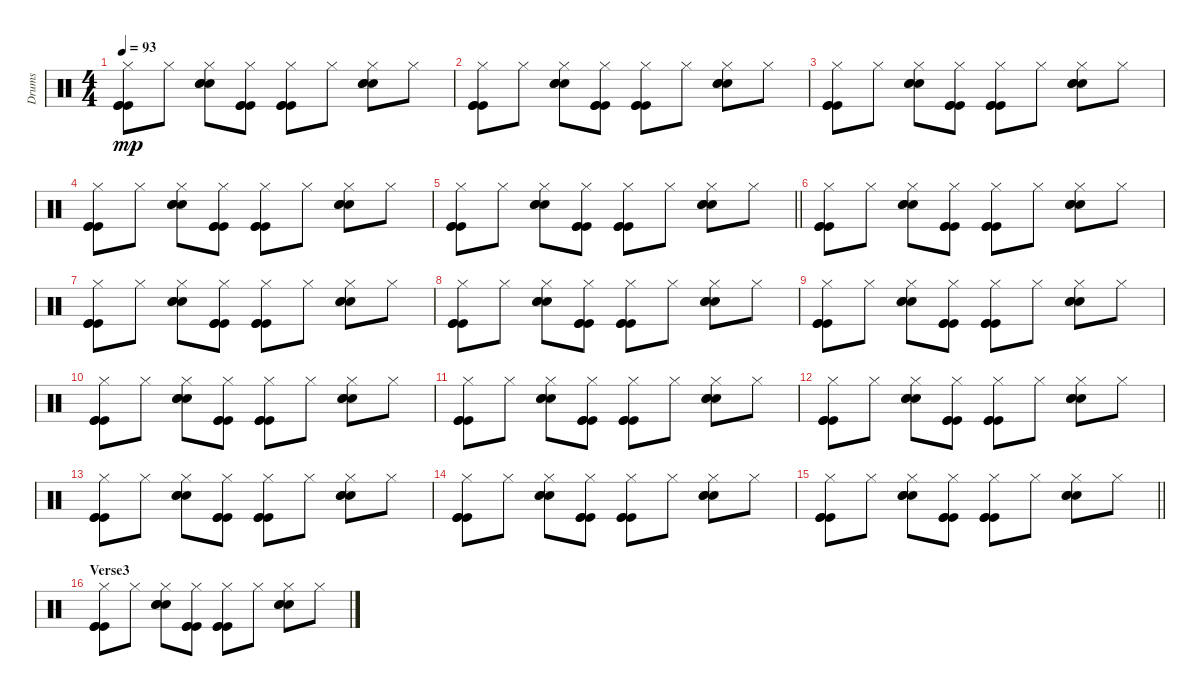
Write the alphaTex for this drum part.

\track ("Drums" "Drums") {instrument percussion}
\staff {score}
\articulation defaults
\ts (4 4)
\tempo 93
\clef neutral
\ks c
("Kick (hit)" "Kick (hit)" "Kick (hit)" "Hi-Hat (closed)").8{dy mp} "Hi-Hat (closed)".8 ("Snare (hit) 2" "Snare (hit) 2" "Snare (hit) 2" "Hi-Hat (closed)").8 ("Kick (hit)" "Kick (hit)" "Kick (hit)" "Hi-Hat (closed)").8 ("Kick (hit)" "Kick (hit)" "Kick (hit)" "Hi-Hat (closed)").8 "Hi-Hat (closed)".8 ("Snare (hit) 2" "Snare (hit) 2" "Snare (hit) 2" "Hi-Hat (closed)").8 "Hi-Hat (closed)".8 |
("Kick (hit)" "Kick (hit)" "Kick (hit)" "Hi-Hat (closed)").8 "Hi-Hat (closed)".8 ("Snare (hit) 2" "Snare (hit) 2" "Snare (hit) 2" "Hi-Hat (closed)").8 ("Kick (hit)" "Kick (hit)" "Kick (hit)" "Hi-Hat (closed)").8 ("Kick (hit)" "Kick (hit)" "Kick (hit)" "Hi-Hat (closed)").8 "Hi-Hat (closed)".8 ("Snare (hit) 2" "Snare (hit) 2" "Snare (hit) 2" "Hi-Hat (closed)").8 "Hi-Hat (closed)".8 |
("Kick (hit)" "Kick (hit)" "Kick (hit)" "Hi-Hat (closed)").8 "Hi-Hat (closed)".8 ("Snare (hit) 2" "Snare (hit) 2" "Snare (hit) 2" "Hi-Hat (closed)").8 ("Kick (hit)" "Kick (hit)" "Kick (hit)" "Hi-Hat (closed)").8 ("Kick (hit)" "Kick (hit)" "Kick (hit)" "Hi-Hat (closed)").8 "Hi-Hat (closed)".8 ("Snare (hit) 2" "Snare (hit) 2" "Snare (hit) 2" "Hi-Hat (closed)").8 "Hi-Hat (closed)".8 |
("Kick (hit)" "Kick (hit)" "Kick (hit)" "Hi-Hat (closed)").8 "Hi-Hat (closed)".8 ("Snare (hit) 2" "Snare (hit) 2" "Snare (hit) 2" "Hi-Hat (closed)").8 ("Kick (hit)" "Kick (hit)" "Kick (hit)" "Hi-Hat (closed)").8 ("Kick (hit)" "Kick (hit)" "Kick (hit)" "Hi-Hat (closed)").8 "Hi-Hat (closed)".8 ("Snare (hit) 2" "Snare (hit) 2" "Snare (hit) 2" "Hi-Hat (closed)").8 "Hi-Hat (closed)".8 |
\barLineRight lightlight
("Kick (hit)" "Kick (hit)" "Kick (hit)" "Hi-Hat (closed)").8 "Hi-Hat (closed)".8 ("Snare (hit) 2" "Snare (hit) 2" "Snare (hit) 2" "Hi-Hat (closed)").8 ("Kick (hit)" "Kick (hit)" "Kick (hit)" "Hi-Hat (closed)").8 ("Kick (hit)" "Kick (hit)" "Kick (hit)" "Hi-Hat (closed)").8 "Hi-Hat (closed)".8 ("Snare (hit) 2" "Snare (hit) 2" "Snare (hit) 2" "Hi-Hat (closed)").8 "Hi-Hat (closed)".8 |
("Kick (hit)" "Kick (hit)" "Kick (hit)" "Hi-Hat (closed)").8 "Hi-Hat (closed)".8 ("Snare (hit) 2" "Snare (hit) 2" "Snare (hit) 2" "Hi-Hat (closed)").8 ("Kick (hit)" "Kick (hit)" "Kick (hit)" "Hi-Hat (closed)").8 ("Kick (hit)" "Kick (hit)" "Kick (hit)" "Hi-Hat (closed)").8 "Hi-Hat (closed)".8 ("Snare (hit) 2" "Snare (hit) 2" "Snare (hit) 2" "Hi-Hat (closed)").8 "Hi-Hat (closed)".8 |
("Kick (hit)" "Kick (hit)" "Kick (hit)" "Hi-Hat (closed)").8 "Hi-Hat (closed)".8 ("Snare (hit) 2" "Snare (hit) 2" "Snare (hit) 2" "Hi-Hat (closed)").8 ("Kick (hit)" "Kick (hit)" "Kick (hit)" "Hi-Hat (closed)").8 ("Kick (hit)" "Kick (hit)" "Kick (hit)" "Hi-Hat (closed)").8 "Hi-Hat (closed)".8 ("Snare (hit) 2" "Snare (hit) 2" "Snare (hit) 2" "Hi-Hat (closed)").8 "Hi-Hat (closed)".8 |
("Kick (hit)" "Kick (hit)" "Kick (hit)" "Hi-Hat (closed)").8 "Hi-Hat (closed)".8 ("Snare (hit) 2" "Snare (hit) 2" "Snare (hit) 2" "Hi-Hat (closed)").8 ("Kick (hit)" "Kick (hit)" "Kick (hit)" "Hi-Hat (closed)").8 ("Kick (hit)" "Kick (hit)" "Kick (hit)" "Hi-Hat (closed)").8 "Hi-Hat (closed)".8 ("Snare (hit) 2" "Snare (hit) 2" "Snare (hit) 2" "Hi-Hat (closed)").8 "Hi-Hat (closed)".8 |
("Kick (hit)" "Kick (hit)" "Kick (hit)" "Hi-Hat (closed)").8 "Hi-Hat (closed)".8 ("Snare (hit) 2" "Snare (hit) 2" "Snare (hit) 2" "Hi-Hat (closed)").8 ("Kick (hit)" "Kick (hit)" "Kick (hit)" "Hi-Hat (closed)").8 ("Kick (hit)" "Kick (hit)" "Kick (hit)" "Hi-Hat (closed)").8 "Hi-Hat (closed)".8 ("Snare (hit) 2" "Snare (hit) 2" "Snare (hit) 2" "Hi-Hat (closed)").8 "Hi-Hat (closed)".8 |
("Kick (hit)" "Kick (hit)" "Kick (hit)" "Hi-Hat (closed)").8 "Hi-Hat (closed)".8 ("Snare (hit) 2" "Snare (hit) 2" "Snare (hit) 2" "Hi-Hat (closed)").8 ("Kick (hit)" "Kick (hit)" "Kick (hit)" "Hi-Hat (closed)").8 ("Kick (hit)" "Kick (hit)" "Kick (hit)" "Hi-Hat (closed)").8 "Hi-Hat (closed)".8 ("Snare (hit) 2" "Snare (hit) 2" "Snare (hit) 2" "Hi-Hat (closed)").8 "Hi-Hat (closed)".8 |
("Kick (hit)" "Kick (hit)" "Kick (hit)" "Hi-Hat (closed)").8 "Hi-Hat (closed)".8 ("Snare (hit) 2" "Snare (hit) 2" "Snare (hit) 2" "Hi-Hat (closed)").8 ("Kick (hit)" "Kick (hit)" "Kick (hit)" "Hi-Hat (closed)").8 ("Kick (hit)" "Kick (hit)" "Kick (hit)" "Hi-Hat (closed)").8 "Hi-Hat (closed)".8 ("Snare (hit) 2" "Snare (hit) 2" "Snare (hit) 2" "Hi-Hat (closed)").8 "Hi-Hat (closed)".8 |
("Kick (hit)" "Kick (hit)" "Kick (hit)" "Hi-Hat (closed)").8 "Hi-Hat (closed)".8 ("Snare (hit) 2" "Snare (hit) 2" "Snare (hit) 2" "Hi-Hat (closed)").8 ("Kick (hit)" "Kick (hit)" "Kick (hit)" "Hi-Hat (closed)").8 ("Kick (hit)" "Kick (hit)" "Kick (hit)" "Hi-Hat (closed)").8 "Hi-Hat (closed)".8 ("Snare (hit) 2" "Snare (hit) 2" "Snare (hit) 2" "Hi-Hat (closed)").8 "Hi-Hat (closed)".8 |
("Kick (hit)" "Kick (hit)" "Kick (hit)" "Hi-Hat (closed)").8{volume 4} "Hi-Hat (closed)".8 ("Snare (hit) 2" "Snare (hit) 2" "Snare (hit) 2" "Hi-Hat (closed)").8 ("Kick (hit)" "Kick (hit)" "Kick (hit)" "Hi-Hat (closed)").8 ("Kick (hit)" "Kick (hit)" "Kick (hit)" "Hi-Hat (closed)").8 "Hi-Hat (closed)".8 ("Snare (hit) 2" "Snare (hit) 2" "Snare (hit) 2" "Hi-Hat (closed)").8 "Hi-Hat (closed)".8 |
("Kick (hit)" "Kick (hit)" "Kick (hit)" "Hi-Hat (closed)").8 "Hi-Hat (closed)".8 ("Snare (hit) 2" "Snare (hit) 2" "Snare (hit) 2" "Hi-Hat (closed)").8 ("Kick (hit)" "Kick (hit)" "Kick (hit)" "Hi-Hat (closed)").8 ("Kick (hit)" "Kick (hit)" "Kick (hit)" "Hi-Hat (closed)").8 "Hi-Hat (closed)".8 ("Snare (hit) 2" "Snare (hit) 2" "Snare (hit) 2" "Hi-Hat (closed)").8 "Hi-Hat (closed)".8 |
\barLineRight lightlight
("Kick (hit)" "Kick (hit)" "Kick (hit)" "Hi-Hat (closed)").8 "Hi-Hat (closed)".8 ("Snare (hit) 2" "Snare (hit) 2" "Snare (hit) 2" "Hi-Hat (closed)").8 ("Kick (hit)" "Kick (hit)" "Kick (hit)" "Hi-Hat (closed)").8 ("Kick (hit)" "Kick (hit)" "Kick (hit)" "Hi-Hat (closed)").8 "Hi-Hat (closed)".8 ("Snare (hit) 2" "Snare (hit) 2" "Snare (hit) 2" "Hi-Hat (closed)").8 "Hi-Hat (closed)".8{volume 10} |
\section ("" "Verse3")
("Kick (hit)" "Kick (hit)" "Kick (hit)" "Hi-Hat (closed)").8 "Hi-Hat (closed)".8 ("Snare (hit) 2" "Snare (hit) 2" "Snare (hit) 2" "Hi-Hat (closed)").8 ("Kick (hit)" "Kick (hit)" "Kick (hit)" "Hi-Hat (closed)").8 ("Kick (hit)" "Kick (hit)" "Kick (hit)" "Hi-Hat (closed)").8 "Hi-Hat (closed)".8 ("Snare (hit) 2" "Snare (hit) 2" "Snare (hit) 2" "Hi-Hat (closed)").8 "Hi-Hat (closed)".8
